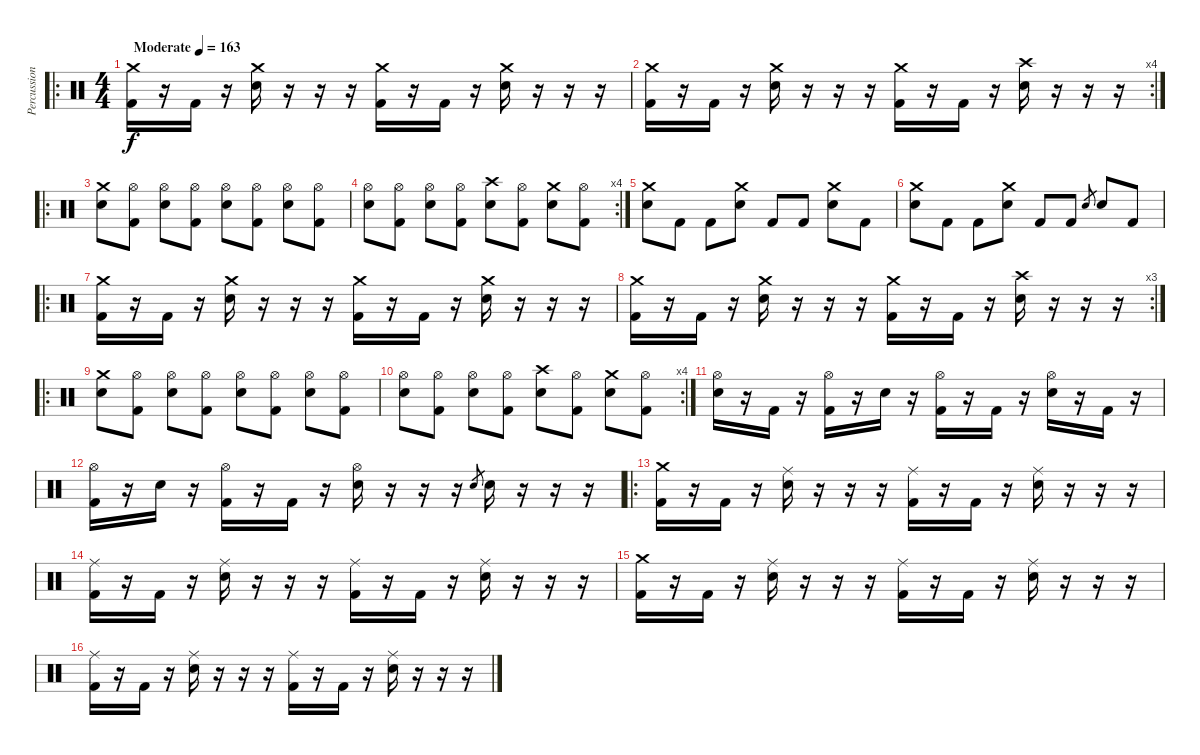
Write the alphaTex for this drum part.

\track ("Percussion" "Percussion") {instrument percussion}
\staff {score}
\articulation defaults
\ro
\ts (4 4)
\tempo (163 "Moderate")
\clef neutral
\ks c
("Crash medium (hit)" "Kick (hit) 2").16{dy f} r.16 "Kick (hit) 2".16 r.16 ("Crash medium (hit)" "Snare (hit) 2").16 r.16 r.16 r.16 ("Crash medium (hit)" "Kick (hit) 2").16 r.16 "Kick (hit) 2".16 r.16 ("Crash medium (hit)" "Snare (hit) 2").16 r.16 r.16 r.16 |
\rc 4
("Crash medium (hit)" "Kick (hit) 2").16 r.16 "Kick (hit) 2".16 r.16 ("Crash medium (hit)" "Snare (hit) 2").16 r.16 r.16 r.16 ("Crash medium (hit)" "Kick (hit) 2").16 r.16 "Kick (hit) 2".16 r.16 ("Crash high (hit)" "Snare (hit) 2").16 r.16 r.16 r.16 |
\ro
("Crash medium (hit)" "Snare (hit) 2").8 ("Hi-Hat (open)" "Kick (hit) 2").8 ("Hi-Hat (open)" "Snare (hit) 2").8 ("Hi-Hat (open)" "Kick (hit) 2").8 ("Hi-Hat (open)" "Snare (hit) 2").8 ("Hi-Hat (open)" "Kick (hit) 2").8 ("Hi-Hat (open)" "Snare (hit) 2").8 ("Hi-Hat (open)" "Kick (hit) 2").8 |
\rc 4
("Hi-Hat (open)" "Snare (hit) 2").8 ("Hi-Hat (open)" "Kick (hit) 2").8 ("Hi-Hat (open)" "Snare (hit) 2").8 ("Hi-Hat (open)" "Kick (hit) 2").8 ("Crash high (hit)" "Snare (hit) 2").8 ("Hi-Hat (open)" "Kick (hit) 2").8 ("Crash medium (hit)" "Snare (hit) 2").8 ("Hi-Hat (open)" "Kick (hit) 2").8 |
("Crash medium (hit)" "Snare (hit) 2").8 "Kick (hit) 2".8 "Kick (hit) 2".8 ("Crash medium (hit)" "Snare (hit) 2").8 "Kick (hit) 2".8 "Kick (hit) 2".8 ("Crash medium (hit)" "Snare (hit) 2").8 "Kick (hit) 2".8 |
("Crash medium (hit)" "Snare (hit) 2").8 "Kick (hit) 2".8 "Kick (hit) 2".8 ("Crash medium (hit)" "Snare (hit) 2").8 "Kick (hit) 2".8 "Kick (hit) 2".8 "Snare (hit) 2".8{gr} "Snare (hit) 2".8 "Kick (hit) 2".8 |
\ro
("Crash medium (hit)" "Kick (hit) 2").16 r.16 "Kick (hit) 2".16 r.16 ("Crash medium (hit)" "Snare (hit) 2").16 r.16 r.16 r.16 ("Crash medium (hit)" "Kick (hit) 2").16 r.16 "Kick (hit) 2".16 r.16 ("Crash medium (hit)" "Snare (hit) 2").16 r.16 r.16 r.16 |
\rc 3
("Crash medium (hit)" "Kick (hit) 2").16 r.16 "Kick (hit) 2".16 r.16 ("Crash medium (hit)" "Snare (hit) 2").16 r.16 r.16 r.16 ("Crash medium (hit)" "Kick (hit) 2").16 r.16 "Kick (hit) 2".16 r.16 ("Crash high (hit)" "Snare (hit) 2").16 r.16 r.16 r.16 |
\ro
("Crash medium (hit)" "Snare (hit) 2").8 ("Hi-Hat (open)" "Kick (hit) 2").8 ("Hi-Hat (open)" "Snare (hit) 2").8 ("Hi-Hat (open)" "Kick (hit) 2").8 ("Hi-Hat (open)" "Snare (hit) 2").8 ("Hi-Hat (open)" "Kick (hit) 2").8 ("Hi-Hat (open)" "Snare (hit) 2").8 ("Hi-Hat (open)" "Kick (hit) 2").8 |
\rc 4
("Hi-Hat (open)" "Snare (hit) 2").8 ("Hi-Hat (open)" "Kick (hit) 2").8 ("Hi-Hat (open)" "Snare (hit) 2").8 ("Hi-Hat (open)" "Kick (hit) 2").8 ("Crash high (hit)" "Snare (hit) 2").8 ("Hi-Hat (open)" "Kick (hit) 2").8 ("Crash medium (hit)" "Snare (hit) 2").8 ("Hi-Hat (open)" "Kick (hit) 2").8 |
("Hi-Hat (open)" "Snare (hit) 2").16 r.16 "Kick (hit) 2".16 r.16 ("Hi-Hat (open)" "Kick (hit) 2").16 r.16 "Snare (hit) 2".16 r.16 ("Hi-Hat (open)" "Kick (hit) 2").16 r.16 "Kick (hit) 2".16 r.16 ("Hi-Hat (open)" "Snare (hit) 2").16 r.16 "Kick (hit) 2".16 r.16 |
("Hi-Hat (open)" "Kick (hit) 2").16 r.16 "Snare (hit) 2".16 r.16 ("Hi-Hat (open)" "Kick (hit) 2").16 r.16 "Kick (hit) 2".16 r.16 ("Hi-Hat (open)" "Snare (hit) 2").16 r.16 r.16 r.16 "Snare (hit) 2".8{gr} "Snare (hit) 2".16 r.16 r.16 r.16 |
\ro
("Crash medium (hit)" "Kick (hit) 2").16 r.16 "Kick (hit) 2".16 r.16 ("Ride (middle)" "Snare (hit) 2").16 r.16 r.16 r.16 ("Ride (middle)" "Kick (hit) 2").16 r.16 "Kick (hit) 2".16 r.16 ("Ride (middle)" "Snare (hit) 2").16 r.16 r.16 r.16 |
("Ride (middle)" "Kick (hit) 2").16 r.16 "Kick (hit) 2".16 r.16 ("Ride (middle)" "Snare (hit) 2").16 r.16 r.16 r.16 ("Ride (middle)" "Kick (hit) 2").16 r.16 "Kick (hit) 2".16 r.16 ("Ride (middle)" "Snare (hit) 2").16 r.16 r.16 r.16 |
("Crash medium (hit)" "Kick (hit) 2").16 r.16 "Kick (hit) 2".16 r.16 ("Ride (middle)" "Snare (hit) 2").16 r.16 r.16 r.16 ("Ride (middle)" "Kick (hit) 2").16 r.16 "Kick (hit) 2".16 r.16 ("Ride (middle)" "Snare (hit) 2").16 r.16 r.16 r.16 |
("Ride (middle)" "Kick (hit) 2").16 r.16 "Kick (hit) 2".16 r.16 ("Ride (middle)" "Snare (hit) 2").16 r.16 r.16 r.16 ("Ride (middle)" "Kick (hit) 2").16 r.16 "Kick (hit) 2".16 r.16 ("Ride (middle)" "Snare (hit) 2").16 r.16 r.16 r.16
